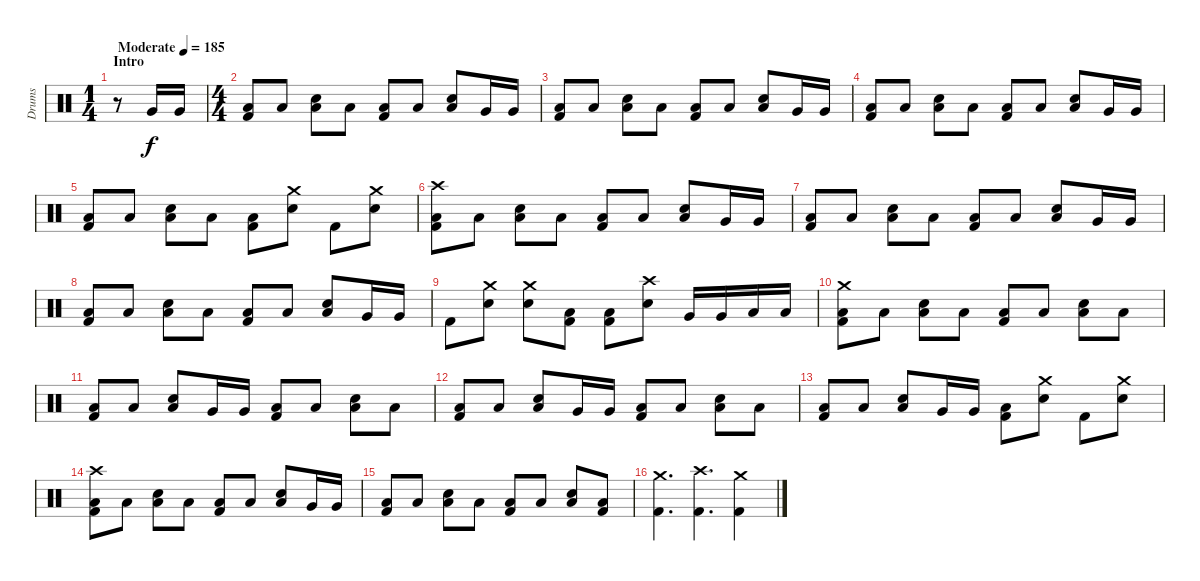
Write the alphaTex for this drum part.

\track ("Drums" "Drums") {instrument percussion}
\staff {score}
\articulation defaults
\ts (1 4)
\section ("" "Intro")
\tempo (185 "Moderate")
\clef neutral
\ks c
r.8{dy f} "Very Low Tom (hit)".16 "Very Low Tom (hit)".16 |
\ts (4 4)
("Low Floor Tom (hit)" "Kick (hit) 2").8 "Low Floor Tom (hit)".8 ("Low Floor Tom (hit)" "Electric Snare (hit)").8 "Low Floor Tom (hit)".8 ("Low Floor Tom (hit)" "Kick (hit) 2").8 "Low Floor Tom (hit)".8 ("Low Floor Tom (hit)" "Electric Snare (hit)").8 "Very Low Tom (hit)".16 "Very Low Tom (hit)".16 |
("Low Floor Tom (hit)" "Kick (hit) 2").8 "Low Floor Tom (hit)".8 ("Low Floor Tom (hit)" "Electric Snare (hit)").8 "Low Floor Tom (hit)".8 ("Low Floor Tom (hit)" "Kick (hit) 2").8 "Low Floor Tom (hit)".8 ("Low Floor Tom (hit)" "Electric Snare (hit)").8 "Very Low Tom (hit)".16 "Very Low Tom (hit)".16 |
("Low Floor Tom (hit)" "Kick (hit) 2").8 "Low Floor Tom (hit)".8 ("Low Floor Tom (hit)" "Electric Snare (hit)").8 "Low Floor Tom (hit)".8 ("Low Floor Tom (hit)" "Kick (hit) 2").8 "Low Floor Tom (hit)".8 ("Low Floor Tom (hit)" "Electric Snare (hit)").8 "Very Low Tom (hit)".16 "Very Low Tom (hit)".16 |
("Low Floor Tom (hit)" "Kick (hit) 2").8 "Low Floor Tom (hit)".8 ("Low Floor Tom (hit)" "Electric Snare (hit)").8 "Low Floor Tom (hit)".8 ("Low Floor Tom (hit)" "Kick (hit) 2").8 ("Crash medium (hit)" "Electric Snare (hit)").8 "Kick (hit) 2".8 ("Crash medium (hit)" "Electric Snare (hit)").8 |
("Crash high (hit)" "Low Floor Tom (hit)" "Kick (hit) 2").8 "Low Floor Tom (hit)".8 ("Low Floor Tom (hit)" "Electric Snare (hit)").8 "Low Floor Tom (hit)".8 ("Low Floor Tom (hit)" "Kick (hit) 2").8 "Low Floor Tom (hit)".8 ("Low Floor Tom (hit)" "Electric Snare (hit)").8 "Very Low Tom (hit)".16 "Very Low Tom (hit)".16 |
("Low Floor Tom (hit)" "Kick (hit) 2").8 "Low Floor Tom (hit)".8 ("Low Floor Tom (hit)" "Electric Snare (hit)").8 "Low Floor Tom (hit)".8 ("Low Floor Tom (hit)" "Kick (hit) 2").8 "Low Floor Tom (hit)".8 ("Low Floor Tom (hit)" "Electric Snare (hit)").8 "Very Low Tom (hit)".16 "Very Low Tom (hit)".16 |
("Low Floor Tom (hit)" "Kick (hit) 2").8 "Low Floor Tom (hit)".8 ("Low Floor Tom (hit)" "Electric Snare (hit)").8 "Low Floor Tom (hit)".8 ("Low Floor Tom (hit)" "Kick (hit) 2").8 "Low Floor Tom (hit)".8 ("Low Floor Tom (hit)" "Electric Snare (hit)").8 "Very Low Tom (hit)".16 "Very Low Tom (hit)".16 |
"Kick (hit) 2".8 ("Crash medium (hit)" "Electric Snare (hit)").8 ("Crash medium (hit)" "Electric Snare (hit)").8 ("Low Floor Tom (hit)" "Kick (hit) 2").8 ("Low Floor Tom (hit)" "Kick (hit) 2").8 ("Crash high (hit)" "Electric Snare (hit)").8 "Very Low Tom (hit)".16 "Very Low Tom (hit)".16 "Low Floor Tom (hit)".16 "Low Floor Tom (hit)".16 |
("Crash medium (hit)" "Low Floor Tom (hit)" "Kick (hit) 2").8 "Low Floor Tom (hit)".8 ("Low Floor Tom (hit)" "Electric Snare (hit)").8 "Low Floor Tom (hit)".8 ("Low Floor Tom (hit)" "Kick (hit) 2").8 "Low Floor Tom (hit)".8 ("Low Floor Tom (hit)" "Electric Snare (hit)").8 "Low Floor Tom (hit)".8 |
("Low Floor Tom (hit)" "Kick (hit) 2").8 "Low Floor Tom (hit)".8 ("Low Floor Tom (hit)" "Electric Snare (hit)").8 "Very Low Tom (hit)".16 "Very Low Tom (hit)".16 ("Low Floor Tom (hit)" "Kick (hit) 2").8 "Low Floor Tom (hit)".8 ("Low Floor Tom (hit)" "Electric Snare (hit)").8 "Low Floor Tom (hit)".8 |
("Low Floor Tom (hit)" "Kick (hit) 2").8 "Low Floor Tom (hit)".8 ("Low Floor Tom (hit)" "Electric Snare (hit)").8 "Very Low Tom (hit)".16 "Very Low Tom (hit)".16 ("Low Floor Tom (hit)" "Kick (hit) 2").8 "Low Floor Tom (hit)".8 ("Low Floor Tom (hit)" "Electric Snare (hit)").8 "Low Floor Tom (hit)".8 |
("Low Floor Tom (hit)" "Kick (hit) 2").8 "Low Floor Tom (hit)".8 ("Low Floor Tom (hit)" "Electric Snare (hit)").8 "Very Low Tom (hit)".16 "Very Low Tom (hit)".16 ("Low Floor Tom (hit)" "Kick (hit) 2").8 ("Crash medium (hit)" "Electric Snare (hit)").8 "Kick (hit) 2".8 ("Crash medium (hit)" "Electric Snare (hit)").8 |
("Crash high (hit)" "Low Floor Tom (hit)" "Kick (hit) 2").8 "Low Floor Tom (hit)".8 ("Low Floor Tom (hit)" "Electric Snare (hit)").8 "Low Floor Tom (hit)".8 ("Low Floor Tom (hit)" "Kick (hit) 2").8 "Low Floor Tom (hit)".8 ("Low Floor Tom (hit)" "Electric Snare (hit)").8 "Very Low Tom (hit)".16 "Very Low Tom (hit)".16 |
("Low Floor Tom (hit)" "Kick (hit) 2").8 "Low Floor Tom (hit)".8 ("Low Floor Tom (hit)" "Electric Snare (hit)").8 "Low Floor Tom (hit)".8 ("Low Floor Tom (hit)" "Kick (hit) 2").8 "Low Floor Tom (hit)".8 ("Low Floor Tom (hit)" "Electric Snare (hit)").8 ("Low Floor Tom (hit)" "Kick (hit) 2").8 |
("Crash medium (hit)" "Kick (hit) 2").4{d} ("Crash high (hit)" "Kick (hit) 2").4{d} ("Crash medium (hit)" "Kick (hit) 2").4
